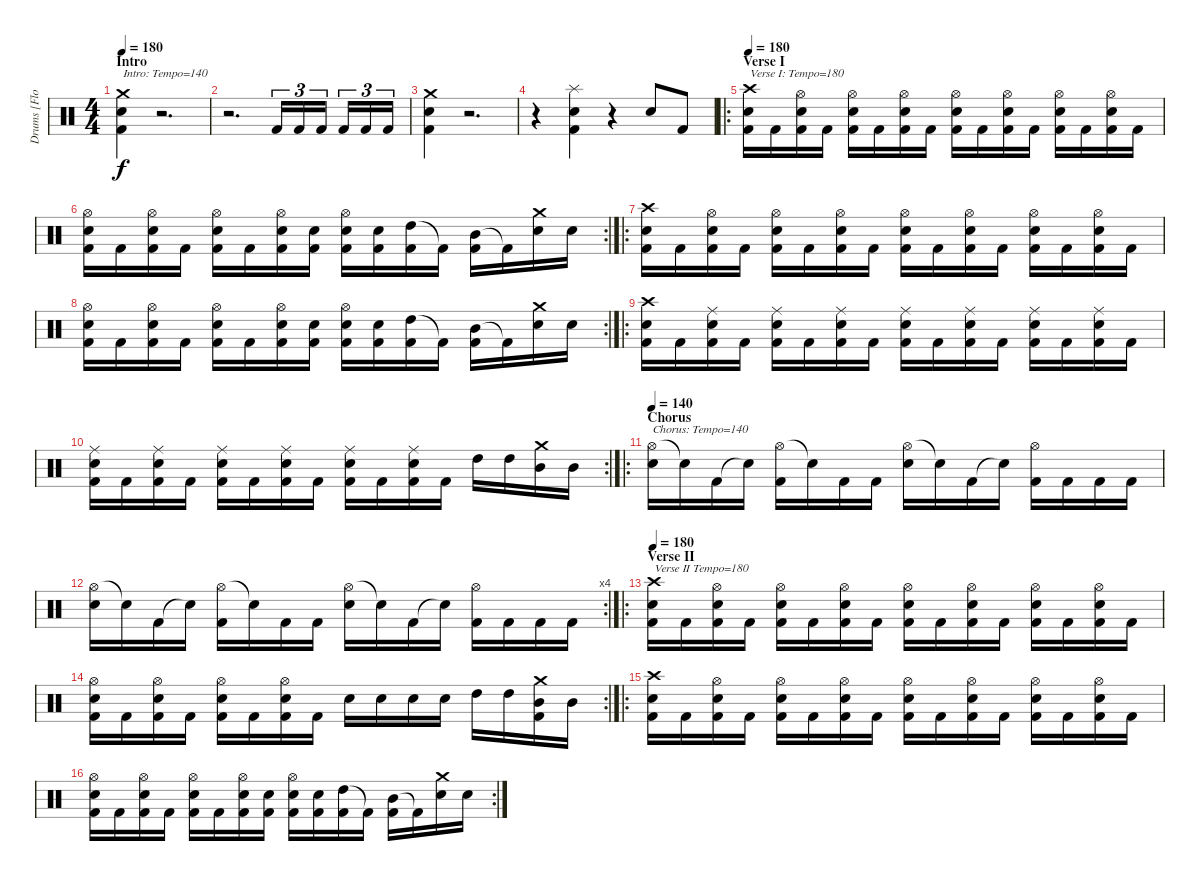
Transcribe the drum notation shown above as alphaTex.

\track ("Drums [Flo Mournier]" "Drums [Flo") {instrument percussion}
\staff {score}
\articulation defaults
\ts (4 4)
\section ("" "Intro")
\tempo 180
\tempo 140
\tempo 180
\clef neutral
\ks c
("Crash medium (hit)" "Electric Snare (hit)" "Kick (hit) 2").4{txt "Intro: Tempo=140" dy f} r.2{d} |
r.2{d} "Kick (hit) 2".16{tu (3 2)} "Kick (hit) 2".16{tu (3 2)} "Kick (hit) 2".16{tu (3 2)} "Kick (hit) 2".16{tu (3 2)} "Kick (hit) 2".16{tu (3 2)} "Kick (hit) 2".16{tu (3 2)} |
("Crash medium (hit)" "Electric Snare (hit)" "Kick (hit) 2").4 r.2{d} |
r.4 ("Splash (hit)" "Electric Snare (hit)" "Kick (hit) 2").4 r.4 "Electric Snare (hit)".8 "Kick (hit) 2".8 |
\ro
\section ("" "Verse I")
\tempo 180
("Crash high (hit)" "Electric Snare (hit)" "Kick (hit) 2").16{txt "Verse I: Tempo=180"} "Kick (hit) 2".16 ("Hi-Hat (open)" "Electric Snare (hit)" "Kick (hit) 2").16 "Kick (hit) 2".16 ("Hi-Hat (open)" "Electric Snare (hit)" "Kick (hit) 2").16 "Kick (hit) 2".16 ("Hi-Hat (open)" "Electric Snare (hit)" "Kick (hit) 2").16 "Kick (hit) 2".16 ("Hi-Hat (open)" "Electric Snare (hit)" "Kick (hit) 2").16 "Kick (hit) 2".16 ("Hi-Hat (open)" "Electric Snare (hit)" "Kick (hit) 2").16 "Kick (hit) 2".16 ("Hi-Hat (open)" "Electric Snare (hit)" "Kick (hit) 2").16 "Kick (hit) 2".16 ("Hi-Hat (open)" "Electric Snare (hit)" "Kick (hit) 2").16 "Kick (hit) 2".16 |
\rc 2
("Hi-Hat (open)" "Electric Snare (hit)" "Kick (hit) 2").16 "Kick (hit) 2".16 ("Hi-Hat (open)" "Electric Snare (hit)" "Kick (hit) 2").16 "Kick (hit) 2".16 ("Hi-Hat (open)" "Electric Snare (hit)" "Kick (hit) 2").16 "Kick (hit) 2".16 ("Hi-Hat (open)" "Electric Snare (hit)" "Kick (hit) 2").16 ("Electric Snare (hit)" "Kick (hit) 2").16 ("Hi-Hat (open)" "Electric Snare (hit)" "Kick (hit) 2").16 ("Electric Snare (hit)" "Kick (hit) 2").16 ("High Tom (hit)" "Kick (hit) 2").16 "Kick (hit) 2"{t}.16 ("Mid Tom (hit)" "Kick (hit) 2").16 "Kick (hit) 2"{t}.16 ("Crash medium (hit)" "Electric Snare (hit)").16 "Electric Snare (hit)".16 |
\ro
("Crash high (hit)" "Electric Snare (hit)" "Kick (hit) 2").16 "Kick (hit) 2".16 ("Hi-Hat (open)" "Electric Snare (hit)" "Kick (hit) 2").16 "Kick (hit) 2".16 ("Hi-Hat (open)" "Electric Snare (hit)" "Kick (hit) 2").16 "Kick (hit) 2".16 ("Hi-Hat (open)" "Electric Snare (hit)" "Kick (hit) 2").16 "Kick (hit) 2".16 ("Hi-Hat (open)" "Electric Snare (hit)" "Kick (hit) 2").16 "Kick (hit) 2".16 ("Hi-Hat (open)" "Electric Snare (hit)" "Kick (hit) 2").16 "Kick (hit) 2".16 ("Hi-Hat (open)" "Electric Snare (hit)" "Kick (hit) 2").16 "Kick (hit) 2".16 ("Hi-Hat (open)" "Electric Snare (hit)" "Kick (hit) 2").16 "Kick (hit) 2".16 |
\rc 2
("Hi-Hat (open)" "Electric Snare (hit)" "Kick (hit) 2").16 "Kick (hit) 2".16 ("Hi-Hat (open)" "Electric Snare (hit)" "Kick (hit) 2").16 "Kick (hit) 2".16 ("Hi-Hat (open)" "Electric Snare (hit)" "Kick (hit) 2").16 "Kick (hit) 2".16 ("Hi-Hat (open)" "Electric Snare (hit)" "Kick (hit) 2").16 ("Electric Snare (hit)" "Kick (hit) 2").16 ("Hi-Hat (open)" "Electric Snare (hit)" "Kick (hit) 2").16 ("Electric Snare (hit)" "Kick (hit) 2").16 ("High Tom (hit)" "Kick (hit) 2").16 "Kick (hit) 2"{t}.16 ("Mid Tom (hit)" "Kick (hit) 2").16 "Kick (hit) 2"{t}.16 ("Crash medium (hit)" "Electric Snare (hit)").16 "Electric Snare (hit)".16 |
\ro
("Crash high (hit)" "Electric Snare (hit)" "Kick (hit) 2").16 "Kick (hit) 2".16 ("Ride (middle)" "Electric Snare (hit)" "Kick (hit) 2").16 "Kick (hit) 2".16 ("Ride (middle)" "Electric Snare (hit)" "Kick (hit) 2").16 "Kick (hit) 2".16 ("Ride (middle)" "Electric Snare (hit)" "Kick (hit) 2").16 "Kick (hit) 2".16 ("Ride (middle)" "Electric Snare (hit)" "Kick (hit) 2").16 "Kick (hit) 2".16 ("Ride (middle)" "Electric Snare (hit)" "Kick (hit) 2").16 "Kick (hit) 2".16 ("Ride (middle)" "Electric Snare (hit)" "Kick (hit) 2").16 "Kick (hit) 2".16 ("Ride (middle)" "Electric Snare (hit)" "Kick (hit) 2").16 "Kick (hit) 2".16 |
\rc 2
("Ride (middle)" "Electric Snare (hit)" "Kick (hit) 2").16 "Kick (hit) 2".16 ("Ride (middle)" "Electric Snare (hit)" "Kick (hit) 2").16 "Kick (hit) 2".16 ("Ride (middle)" "Electric Snare (hit)" "Kick (hit) 2").16 "Kick (hit) 2".16 ("Ride (middle)" "Electric Snare (hit)" "Kick (hit) 2").16 "Kick (hit) 2".16 ("Ride (middle)" "Electric Snare (hit)" "Kick (hit) 2").16 "Kick (hit) 2".16 ("Ride (middle)" "Electric Snare (hit)" "Kick (hit) 2").16 "Kick (hit) 2".16 "High Tom (hit)".16 "High Tom (hit)".16 ("Crash medium (hit)" "Mid Tom (hit)").16 "Mid Tom (hit)".16 |
\ro
\section ("" "Chorus")
\tempo 140
("Hi-Hat (open)" "Electric Snare (hit)").16{txt "Chorus: Tempo=140"} "Snare (hit)"{t}.16 "Kick (hit) 2".16 "Snare (hit)"{t}.16 ("Hi-Hat (open)" "Kick (hit) 2").16 "Snare (hit)"{t}.16 "Kick (hit) 2".16 "Kick (hit) 2".16 ("Hi-Hat (open)" "Electric Snare (hit)").16 "Snare (hit)"{t}.16 "Kick (hit) 2".16 "Snare (hit)"{t}.16 ("Hi-Hat (open)" "Kick (hit) 2").16 "Kick (hit) 2".16 "Kick (hit) 2".16 "Kick (hit) 2".16 |
\rc 4
("Hi-Hat (open)" "Electric Snare (hit)").16 "Snare (hit)"{t}.16 "Kick (hit) 2".16 "Snare (hit)"{t}.16 ("Hi-Hat (open)" "Kick (hit) 2").16 "Snare (hit)"{t}.16 "Kick (hit) 2".16 "Kick (hit) 2".16 ("Hi-Hat (open)" "Electric Snare (hit)").16 "Snare (hit)"{t}.16 "Kick (hit) 2".16 "Snare (hit)"{t}.16 ("Hi-Hat (open)" "Kick (hit) 2").16 "Kick (hit) 2".16 "Kick (hit) 2".16 "Kick (hit) 2".16 |
\ro
\section ("" "Verse II")
\tempo 180
("Crash high (hit)" "Electric Snare (hit)" "Kick (hit) 2").16{txt "Verse II Tempo=180"} "Kick (hit) 2".16 ("Hi-Hat (open)" "Electric Snare (hit)" "Kick (hit) 2").16 "Kick (hit) 2".16 ("Hi-Hat (open)" "Electric Snare (hit)" "Kick (hit) 2").16 "Kick (hit) 2".16 ("Hi-Hat (open)" "Electric Snare (hit)" "Kick (hit) 2").16 "Kick (hit) 2".16 ("Hi-Hat (open)" "Electric Snare (hit)" "Kick (hit) 2").16 "Kick (hit) 2".16 ("Hi-Hat (open)" "Electric Snare (hit)" "Kick (hit) 2").16 "Kick (hit) 2".16 ("Hi-Hat (open)" "Electric Snare (hit)" "Kick (hit) 2").16 "Kick (hit) 2".16 ("Hi-Hat (open)" "Electric Snare (hit)" "Kick (hit) 2").16 "Kick (hit) 2".16 |
\rc 2
("Hi-Hat (open)" "Electric Snare (hit)" "Kick (hit) 2").16 "Kick (hit) 2".16 ("Hi-Hat (open)" "Electric Snare (hit)" "Kick (hit) 2").16 "Kick (hit) 2".16 ("Hi-Hat (open)" "Electric Snare (hit)" "Kick (hit) 2").16 "Kick (hit) 2".16 ("Hi-Hat (open)" "Electric Snare (hit)" "Kick (hit) 2").16 "Kick (hit) 2".16 "Electric Snare (hit)".16 "Electric Snare (hit)".16 "Electric Snare (hit)".16 "Electric Snare (hit)".16 "High Tom (hit)".16 "High Tom (hit)".16 ("Crash medium (hit)" "Mid Tom (hit)" "Kick (hit) 2").16 "Mid Tom (hit)".16 |
\ro
("Crash high (hit)" "Electric Snare (hit)" "Kick (hit) 2").16 "Kick (hit) 2".16 ("Hi-Hat (open)" "Electric Snare (hit)" "Kick (hit) 2").16 "Kick (hit) 2".16 ("Hi-Hat (open)" "Electric Snare (hit)" "Kick (hit) 2").16 "Kick (hit) 2".16 ("Hi-Hat (open)" "Electric Snare (hit)" "Kick (hit) 2").16 "Kick (hit) 2".16 ("Hi-Hat (open)" "Electric Snare (hit)" "Kick (hit) 2").16 "Kick (hit) 2".16 ("Hi-Hat (open)" "Electric Snare (hit)" "Kick (hit) 2").16 "Kick (hit) 2".16 ("Hi-Hat (open)" "Electric Snare (hit)" "Kick (hit) 2").16 "Kick (hit) 2".16 ("Hi-Hat (open)" "Electric Snare (hit)" "Kick (hit) 2").16 "Kick (hit) 2".16 |
\rc 2
("Hi-Hat (open)" "Electric Snare (hit)" "Kick (hit) 2").16 "Kick (hit) 2".16 ("Hi-Hat (open)" "Electric Snare (hit)" "Kick (hit) 2").16 "Kick (hit) 2".16 ("Hi-Hat (open)" "Electric Snare (hit)" "Kick (hit) 2").16 "Kick (hit) 2".16 ("Hi-Hat (open)" "Electric Snare (hit)" "Kick (hit) 2").16 ("Electric Snare (hit)" "Kick (hit) 2").16 ("Hi-Hat (open)" "Electric Snare (hit)" "Kick (hit) 2").16 ("Electric Snare (hit)" "Kick (hit) 2").16 ("High Tom (hit)" "Kick (hit) 2").16 "Kick (hit) 2"{t}.16 ("Mid Tom (hit)" "Kick (hit) 2").16 "Kick (hit) 2"{t}.16 ("Crash medium (hit)" "Electric Snare (hit)").16 "Electric Snare (hit)".16
